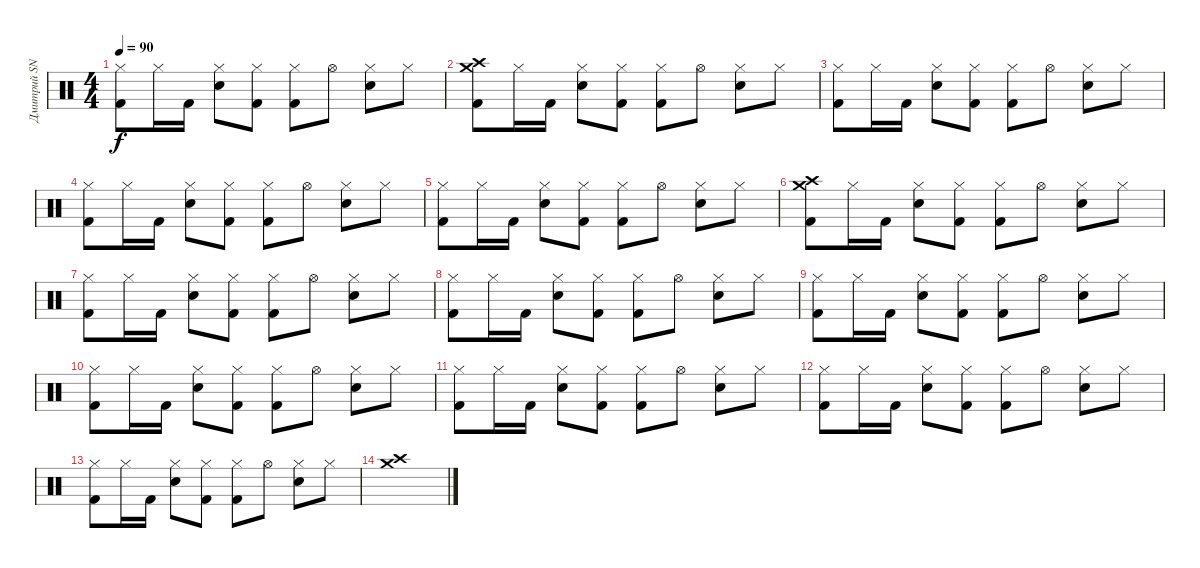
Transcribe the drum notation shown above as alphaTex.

\track ("Дмитрий SNAKE Хакимов" "Дмитрий SN") {instrument percussion}
\staff {score}
\articulation defaults
\ts (4 4)
\tempo 90
\clef neutral
\ks c
("Hi-Hat (closed)" "Kick (hit) 2").8{dy f} "Hi-Hat (closed)".16 "Kick (hit) 2".16 ("Hi-Hat (closed)" "Snare (hit) 2").8 ("Hi-Hat (closed)" "Kick (hit) 2").8 ("Hi-Hat (closed)" "Kick (hit) 2").8 "Hi-Hat (open)".8 ("Hi-Hat (closed)" "Snare (hit) 2").8 "Hi-Hat (closed)".8 |
("Crash high (hit)" "Crash medium (hit)" "Kick (hit) 2").8 "Hi-Hat (closed)".16 "Kick (hit) 2".16 ("Hi-Hat (closed)" "Snare (hit) 2").8 ("Hi-Hat (closed)" "Kick (hit) 2").8 ("Hi-Hat (closed)" "Kick (hit) 2").8 "Hi-Hat (open)".8 ("Hi-Hat (closed)" "Snare (hit) 2").8 "Hi-Hat (closed)".8 |
("Hi-Hat (closed)" "Kick (hit) 2").8 "Hi-Hat (closed)".16 "Kick (hit) 2".16 ("Hi-Hat (closed)" "Snare (hit) 2").8 ("Hi-Hat (closed)" "Kick (hit) 2").8 ("Hi-Hat (closed)" "Kick (hit) 2").8 "Hi-Hat (open)".8 ("Hi-Hat (closed)" "Snare (hit) 2").8 "Hi-Hat (closed)".8 |
("Hi-Hat (closed)" "Kick (hit) 2").8 "Hi-Hat (closed)".16 "Kick (hit) 2".16 ("Hi-Hat (closed)" "Snare (hit) 2").8 ("Hi-Hat (closed)" "Kick (hit) 2").8 ("Hi-Hat (closed)" "Kick (hit) 2").8 "Hi-Hat (open)".8 ("Hi-Hat (closed)" "Snare (hit) 2").8 "Hi-Hat (closed)".8 |
("Hi-Hat (closed)" "Kick (hit) 2").8 "Hi-Hat (closed)".16 "Kick (hit) 2".16 ("Hi-Hat (closed)" "Snare (hit) 2").8 ("Hi-Hat (closed)" "Kick (hit) 2").8 ("Hi-Hat (closed)" "Kick (hit) 2").8 "Hi-Hat (open)".8 ("Hi-Hat (closed)" "Snare (hit) 2").8 "Hi-Hat (closed)".8 |
("Crash high (hit)" "Crash medium (hit)" "Kick (hit) 2").8 "Hi-Hat (closed)".16 "Kick (hit) 2".16 ("Hi-Hat (closed)" "Snare (hit) 2").8 ("Hi-Hat (closed)" "Kick (hit) 2").8 ("Hi-Hat (closed)" "Kick (hit) 2").8 "Hi-Hat (open)".8 ("Hi-Hat (closed)" "Snare (hit) 2").8 "Hi-Hat (closed)".8 |
("Hi-Hat (closed)" "Kick (hit) 2").8 "Hi-Hat (closed)".16 "Kick (hit) 2".16 ("Hi-Hat (closed)" "Snare (hit) 2").8 ("Hi-Hat (closed)" "Kick (hit) 2").8 ("Hi-Hat (closed)" "Kick (hit) 2").8 "Hi-Hat (open)".8 ("Hi-Hat (closed)" "Snare (hit) 2").8 "Hi-Hat (closed)".8 |
("Hi-Hat (closed)" "Kick (hit) 2").8 "Hi-Hat (closed)".16 "Kick (hit) 2".16 ("Hi-Hat (closed)" "Snare (hit) 2").8 ("Hi-Hat (closed)" "Kick (hit) 2").8 ("Hi-Hat (closed)" "Kick (hit) 2").8 "Hi-Hat (open)".8 ("Hi-Hat (closed)" "Snare (hit) 2").8 "Hi-Hat (closed)".8 |
("Hi-Hat (closed)" "Kick (hit) 2").8 "Hi-Hat (closed)".16 "Kick (hit) 2".16 ("Hi-Hat (closed)" "Snare (hit) 2").8 ("Hi-Hat (closed)" "Kick (hit) 2").8 ("Hi-Hat (closed)" "Kick (hit) 2").8 "Hi-Hat (open)".8 ("Hi-Hat (closed)" "Snare (hit) 2").8 "Hi-Hat (closed)".8 |
("Hi-Hat (closed)" "Kick (hit) 2").8 "Hi-Hat (closed)".16 "Kick (hit) 2".16 ("Hi-Hat (closed)" "Snare (hit) 2").8 ("Hi-Hat (closed)" "Kick (hit) 2").8 ("Hi-Hat (closed)" "Kick (hit) 2").8 "Hi-Hat (open)".8 ("Hi-Hat (closed)" "Snare (hit) 2").8 "Hi-Hat (closed)".8 |
("Hi-Hat (closed)" "Kick (hit) 2").8 "Hi-Hat (closed)".16 "Kick (hit) 2".16 ("Hi-Hat (closed)" "Snare (hit) 2").8 ("Hi-Hat (closed)" "Kick (hit) 2").8 ("Hi-Hat (closed)" "Kick (hit) 2").8 "Hi-Hat (open)".8 ("Hi-Hat (closed)" "Snare (hit) 2").8 "Hi-Hat (closed)".8 |
("Hi-Hat (closed)" "Kick (hit) 2").8 "Hi-Hat (closed)".16 "Kick (hit) 2".16 ("Hi-Hat (closed)" "Snare (hit) 2").8 ("Hi-Hat (closed)" "Kick (hit) 2").8 ("Hi-Hat (closed)" "Kick (hit) 2").8 "Hi-Hat (open)".8 ("Hi-Hat (closed)" "Snare (hit) 2").8 "Hi-Hat (closed)".8 |
("Hi-Hat (closed)" "Kick (hit) 2").8 "Hi-Hat (closed)".16 "Kick (hit) 2".16 ("Hi-Hat (closed)" "Snare (hit) 2").8 ("Hi-Hat (closed)" "Kick (hit) 2").8 ("Hi-Hat (closed)" "Kick (hit) 2").8 "Hi-Hat (open)".8 ("Hi-Hat (closed)" "Snare (hit) 2").8 "Hi-Hat (closed)".8 |
("Crash high (hit)" "Crash medium (hit)").1
